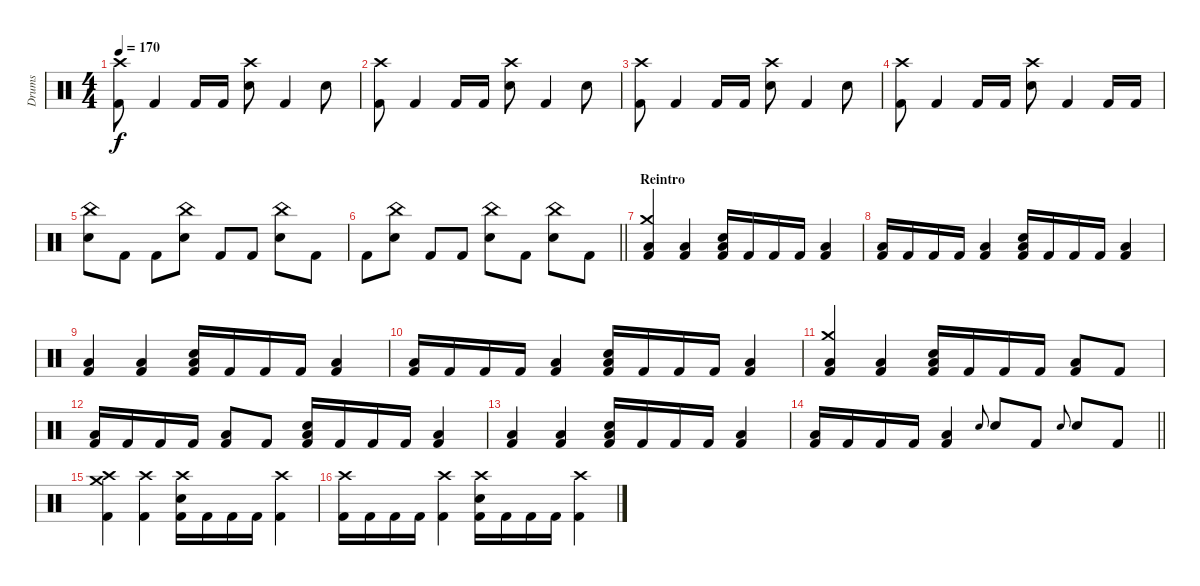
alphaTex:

\track ("Drums" "Drums") {instrument percussion}
\staff {score}
\articulation defaults
\ts (4 4)
\tempo 170
\clef neutral
\ks c
("Crash high (hit)" "Kick (hit) 2").8{dy f} "Kick (hit) 2".4 "Kick (hit) 2".16 "Kick (hit) 2".16 ("Crash high (hit)" "Electric Snare (hit)").8 "Kick (hit) 2".4 "Electric Snare (hit)".8 |
("Crash high (hit)" "Kick (hit) 2").8 "Kick (hit) 2".4 "Kick (hit) 2".16 "Kick (hit) 2".16 ("Crash high (hit)" "Electric Snare (hit)").8 "Kick (hit) 2".4 "Electric Snare (hit)".8 |
("Crash high (hit)" "Kick (hit) 2").8 "Kick (hit) 2".4 "Kick (hit) 2".16 "Kick (hit) 2".16 ("Crash high (hit)" "Electric Snare (hit)").8 "Kick (hit) 2".4 "Electric Snare (hit)".8 |
("Crash high (hit)" "Kick (hit) 2").8 "Kick (hit) 2".4 "Kick (hit) 2".16 "Kick (hit) 2".16 ("Crash high (hit)" "Electric Snare (hit)").8 "Kick (hit) 2".4 "Kick (hit) 2".16 "Kick (hit) 2".16 |
("China (hit)" "Electric Snare (hit)").8 "Kick (hit) 2".8 "Kick (hit) 2".8 ("China (hit)" "Electric Snare (hit)").8 "Kick (hit) 2".8 "Kick (hit) 2".8 ("China (hit)" "Electric Snare (hit)").8 "Kick (hit) 2".8 |
\barLineRight lightlight "Kick (hit) 2".8
("China (hit)" "Electric Snare (hit)").8 "Kick (hit) 2".8 "Kick (hit) 2".8 ("China (hit)" "Electric Snare (hit)").8 "Kick (hit) 2".8 ("China (hit)" "Electric Snare (hit)").8 "Kick (hit) 2".8 |
\section ("" "Reintro")
("Crash medium (hit)" "Low Floor Tom (hit)" "Kick (hit) 2").4 ("Low Floor Tom (hit)" "Kick (hit) 2").4 ("Low Floor Tom (hit)" "Electric Snare (hit)" "Kick (hit) 2").16 "Kick (hit) 2".16 "Kick (hit) 2".16 "Kick (hit) 2".16 ("Low Floor Tom (hit)" "Kick (hit) 2").4 |
("Low Floor Tom (hit)" "Kick (hit) 2").16 "Kick (hit) 2".16 "Kick (hit) 2".16 "Kick (hit) 2".16 ("Low Floor Tom (hit)" "Kick (hit) 2").4 ("Low Floor Tom (hit)" "Electric Snare (hit)" "Kick (hit) 2").16 "Kick (hit) 2".16 "Kick (hit) 2".16 "Kick (hit) 2".16 ("Low Floor Tom (hit)" "Kick (hit) 2").4 |
("Low Floor Tom (hit)" "Kick (hit) 2").4 ("Low Floor Tom (hit)" "Kick (hit) 2").4 ("Low Floor Tom (hit)" "Electric Snare (hit)" "Kick (hit) 2").16 "Kick (hit) 2".16 "Kick (hit) 2".16 "Kick (hit) 2".16 ("Low Floor Tom (hit)" "Kick (hit) 2").4 |
("Low Floor Tom (hit)" "Kick (hit) 2").16 "Kick (hit) 2".16 "Kick (hit) 2".16 "Kick (hit) 2".16 ("Low Floor Tom (hit)" "Kick (hit) 2").4 ("Low Floor Tom (hit)" "Electric Snare (hit)" "Kick (hit) 2").16 "Kick (hit) 2".16 "Kick (hit) 2".16 "Kick (hit) 2".16 ("Low Floor Tom (hit)" "Kick (hit) 2").4 |
("Crash medium (hit)" "Low Floor Tom (hit)" "Kick (hit) 2").4 ("Low Floor Tom (hit)" "Kick (hit) 2").4 ("Low Floor Tom (hit)" "Electric Snare (hit)" "Kick (hit) 2").16 "Kick (hit) 2".16 "Kick (hit) 2".16 "Kick (hit) 2".16 ("Low Floor Tom (hit)" "Kick (hit) 2").8 "Kick (hit) 2".8 |
("Low Floor Tom (hit)" "Kick (hit) 2").16 "Kick (hit) 2".16 "Kick (hit) 2".16 "Kick (hit) 2".16 ("Low Floor Tom (hit)" "Kick (hit) 2").8 "Kick (hit) 2".8 ("Low Floor Tom (hit)" "Electric Snare (hit)" "Kick (hit) 2").16 "Kick (hit) 2".16 "Kick (hit) 2".16 "Kick (hit) 2".16 ("Low Floor Tom (hit)" "Kick (hit) 2").4 |
("Low Floor Tom (hit)" "Kick (hit) 2").4 ("Low Floor Tom (hit)" "Kick (hit) 2").4 ("Low Floor Tom (hit)" "Electric Snare (hit)" "Kick (hit) 2").16 "Kick (hit) 2".16 "Kick (hit) 2".16 "Kick (hit) 2".16 ("Low Floor Tom (hit)" "Kick (hit) 2").4 |
\barLineRight lightlight
("Low Floor Tom (hit)" "Kick (hit) 2").16 "Kick (hit) 2".16 "Kick (hit) 2".16 "Kick (hit) 2".16 ("Low Floor Tom (hit)" "Kick (hit) 2").4 "Electric Snare (hit)".8{gr onbeat} "Electric Snare (hit)".8 "Kick (hit) 2".8 "Electric Snare (hit)".8{gr onbeat} "Electric Snare (hit)".8 "Kick (hit) 2".8 |
\section ("" "")
("Crash high (hit)" "Crash medium (hit)" "Kick (hit) 2").4 ("Crash high (hit)" "Kick (hit) 2").4 ("Crash high (hit)" "Electric Snare (hit)" "Kick (hit) 2").16 "Kick (hit) 2".16 "Kick (hit) 2".16 "Kick (hit) 2".16 ("Crash high (hit)" "Kick (hit) 2").4 |
("Crash high (hit)" "Kick (hit) 2").16 "Kick (hit) 2".16 "Kick (hit) 2".16 "Kick (hit) 2".16 ("Crash high (hit)" "Kick (hit) 2").4 ("Crash high (hit)" "Electric Snare (hit)" "Kick (hit) 2").16 "Kick (hit) 2".16 "Kick (hit) 2".16 "Kick (hit) 2".16 ("Crash high (hit)" "Kick (hit) 2").4
